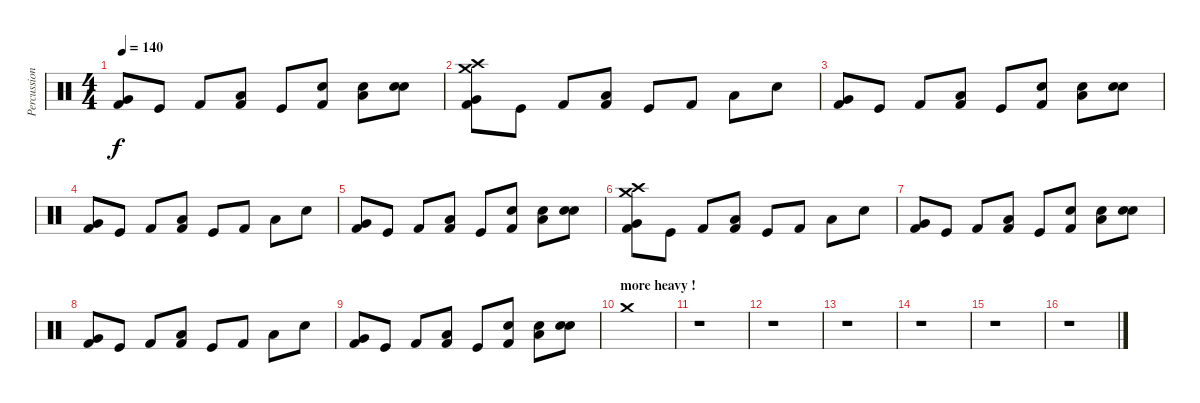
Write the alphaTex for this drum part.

\track ("Percussions" "Percussion") {instrument percussion}
\staff {score}
\articulation defaults
\ts (4 4)
\tempo 140
\clef neutral
\ks c
("Kick (hit) 2" "Very Low Tom (hit)").8{dy f} "Kick (hit)".8 "Kick (hit) 2".8 ("Kick (hit) 2" "Low Floor Tom (hit)").8 "Kick (hit)".8 ("Snare (hit) 2" "Kick (hit) 2").8 ("Snare (hit) 2" "Low Floor Tom (hit)").8 ("Snare (hit) 2" "Snare (hit) 2").8 |
("Crash medium (hit)" "Crash high (hit)" "Kick (hit) 2" "Very Low Tom (hit)").8 "Kick (hit)".8 "Kick (hit) 2".8 ("Kick (hit) 2" "Low Floor Tom (hit)").8 "Kick (hit)".8 "Kick (hit) 2".8 "Low Floor Tom (hit)".8 "Snare (hit) 2".8 |
("Kick (hit) 2" "Very Low Tom (hit)").8 "Kick (hit)".8 "Kick (hit) 2".8 ("Kick (hit) 2" "Low Floor Tom (hit)").8 "Kick (hit)".8 ("Snare (hit) 2" "Kick (hit) 2").8 ("Snare (hit) 2" "Low Floor Tom (hit)").8 ("Snare (hit) 2" "Snare (hit) 2").8 |
("Kick (hit) 2" "Very Low Tom (hit)").8 "Kick (hit)".8 "Kick (hit) 2".8 ("Kick (hit) 2" "Low Floor Tom (hit)").8 "Kick (hit)".8 "Kick (hit) 2".8 "Low Floor Tom (hit)".8 "Snare (hit) 2".8 |
("Kick (hit) 2" "Very Low Tom (hit)").8 "Kick (hit)".8 "Kick (hit) 2".8 ("Kick (hit) 2" "Low Floor Tom (hit)").8 "Kick (hit)".8 ("Snare (hit) 2" "Kick (hit) 2").8 ("Snare (hit) 2" "Low Floor Tom (hit)").8 ("Snare (hit) 2" "Snare (hit) 2").8 |
("Crash medium (hit)" "Crash high (hit)" "Kick (hit) 2" "Very Low Tom (hit)").8 "Kick (hit)".8 "Kick (hit) 2".8 ("Kick (hit) 2" "Low Floor Tom (hit)").8 "Kick (hit)".8 "Kick (hit) 2".8 "Low Floor Tom (hit)".8 "Snare (hit) 2".8 |
("Kick (hit) 2" "Very Low Tom (hit)").8 "Kick (hit)".8 "Kick (hit) 2".8 ("Kick (hit) 2" "Low Floor Tom (hit)").8 "Kick (hit)".8 ("Snare (hit) 2" "Kick (hit) 2").8 ("Snare (hit) 2" "Low Floor Tom (hit)").8 ("Snare (hit) 2" "Snare (hit) 2").8 |
("Kick (hit) 2" "Very Low Tom (hit)").8 "Kick (hit)".8 "Kick (hit) 2".8 ("Kick (hit) 2" "Low Floor Tom (hit)").8 "Kick (hit)".8 "Kick (hit) 2".8 "Low Floor Tom (hit)".8 "Snare (hit) 2".8 |
("Kick (hit) 2" "Very Low Tom (hit)").8 "Kick (hit)".8 "Kick (hit) 2".8 ("Kick (hit) 2" "Low Floor Tom (hit)").8 "Kick (hit)".8 ("Snare (hit) 2" "Kick (hit) 2").8 ("Snare (hit) 2" "Low Floor Tom (hit)").8 ("Snare (hit) 2" "Snare (hit) 2").8 |
\section ("" "more heavy !")
"Crash medium (hit)".1 |
r.1 |
r.1 |
r.1 |
r.1 |
r.1 |
r.1
